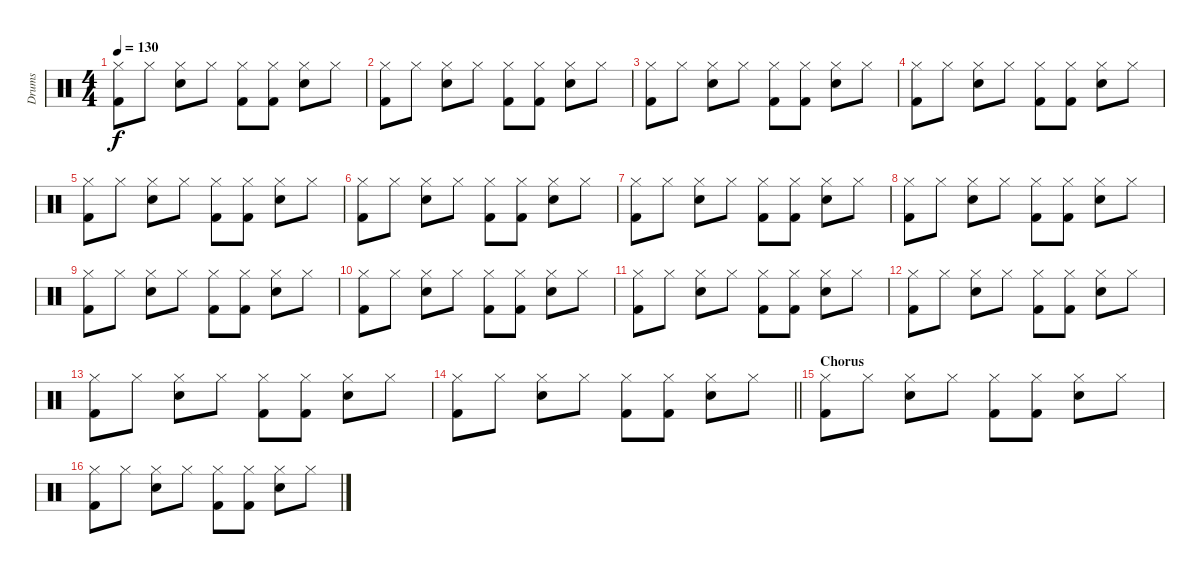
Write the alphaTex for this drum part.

\track ("Drums" "Drums") {instrument percussion}
\staff {score}
\articulation defaults
\ts (4 4)
\tempo 130
\clef neutral
\ks c
("Hi-Hat (closed)" "Kick (hit) 2").8{dy f} "Hi-Hat (closed)".8 ("Hi-Hat (closed)" "Snare (hit) 2").8 "Hi-Hat (closed)".8 ("Hi-Hat (closed)" "Kick (hit) 2").8 ("Hi-Hat (closed)" "Kick (hit) 2").8 ("Hi-Hat (closed)" "Snare (hit) 2").8 "Hi-Hat (closed)".8 |
("Hi-Hat (closed)" "Kick (hit) 2").8 "Hi-Hat (closed)".8 ("Hi-Hat (closed)" "Snare (hit) 2").8 "Hi-Hat (closed)".8 ("Hi-Hat (closed)" "Kick (hit) 2").8 ("Hi-Hat (closed)" "Kick (hit) 2").8 ("Hi-Hat (closed)" "Snare (hit) 2").8 "Hi-Hat (closed)".8 |
("Hi-Hat (closed)" "Kick (hit) 2").8 "Hi-Hat (closed)".8 ("Hi-Hat (closed)" "Snare (hit) 2").8 "Hi-Hat (closed)".8 ("Hi-Hat (closed)" "Kick (hit) 2").8 ("Hi-Hat (closed)" "Kick (hit) 2").8 ("Hi-Hat (closed)" "Snare (hit) 2").8 "Hi-Hat (closed)".8 |
("Hi-Hat (closed)" "Kick (hit) 2").8 "Hi-Hat (closed)".8 ("Hi-Hat (closed)" "Snare (hit) 2").8 "Hi-Hat (closed)".8 ("Hi-Hat (closed)" "Kick (hit) 2").8 ("Hi-Hat (closed)" "Kick (hit) 2").8 ("Hi-Hat (closed)" "Snare (hit) 2").8 "Hi-Hat (closed)".8 |
("Hi-Hat (closed)" "Kick (hit) 2").8 "Hi-Hat (closed)".8 ("Hi-Hat (closed)" "Snare (hit) 2").8 "Hi-Hat (closed)".8 ("Hi-Hat (closed)" "Kick (hit) 2").8 ("Hi-Hat (closed)" "Kick (hit) 2").8 ("Hi-Hat (closed)" "Snare (hit) 2").8 "Hi-Hat (closed)".8 |
("Hi-Hat (closed)" "Kick (hit) 2").8 "Hi-Hat (closed)".8 ("Hi-Hat (closed)" "Snare (hit) 2").8 "Hi-Hat (closed)".8 ("Hi-Hat (closed)" "Kick (hit) 2").8 ("Hi-Hat (closed)" "Kick (hit) 2").8 ("Hi-Hat (closed)" "Snare (hit) 2").8 "Hi-Hat (closed)".8 |
("Hi-Hat (closed)" "Kick (hit) 2").8 "Hi-Hat (closed)".8 ("Hi-Hat (closed)" "Snare (hit) 2").8 "Hi-Hat (closed)".8 ("Hi-Hat (closed)" "Kick (hit) 2").8 ("Hi-Hat (closed)" "Kick (hit) 2").8 ("Hi-Hat (closed)" "Snare (hit) 2").8 "Hi-Hat (closed)".8 |
("Hi-Hat (closed)" "Kick (hit) 2").8 "Hi-Hat (closed)".8 ("Hi-Hat (closed)" "Snare (hit) 2").8 "Hi-Hat (closed)".8 ("Hi-Hat (closed)" "Kick (hit) 2").8 ("Hi-Hat (closed)" "Kick (hit) 2").8 ("Hi-Hat (closed)" "Snare (hit) 2").8 "Hi-Hat (closed)".8 |
("Hi-Hat (closed)" "Kick (hit) 2").8 "Hi-Hat (closed)".8 ("Hi-Hat (closed)" "Snare (hit) 2").8 "Hi-Hat (closed)".8 ("Hi-Hat (closed)" "Kick (hit) 2").8 ("Hi-Hat (closed)" "Kick (hit) 2").8 ("Hi-Hat (closed)" "Snare (hit) 2").8 "Hi-Hat (closed)".8 |
("Hi-Hat (closed)" "Kick (hit) 2").8 "Hi-Hat (closed)".8 ("Hi-Hat (closed)" "Snare (hit) 2").8 "Hi-Hat (closed)".8 ("Hi-Hat (closed)" "Kick (hit) 2").8 ("Hi-Hat (closed)" "Kick (hit) 2").8 ("Hi-Hat (closed)" "Snare (hit) 2").8 "Hi-Hat (closed)".8 |
("Hi-Hat (closed)" "Kick (hit) 2").8 "Hi-Hat (closed)".8 ("Hi-Hat (closed)" "Snare (hit) 2").8 "Hi-Hat (closed)".8 ("Hi-Hat (closed)" "Kick (hit) 2").8 ("Hi-Hat (closed)" "Kick (hit) 2").8 ("Hi-Hat (closed)" "Snare (hit) 2").8 "Hi-Hat (closed)".8 |
("Hi-Hat (closed)" "Kick (hit) 2").8 "Hi-Hat (closed)".8 ("Hi-Hat (closed)" "Snare (hit) 2").8 "Hi-Hat (closed)".8 ("Hi-Hat (closed)" "Kick (hit) 2").8 ("Hi-Hat (closed)" "Kick (hit) 2").8 ("Hi-Hat (closed)" "Snare (hit) 2").8 "Hi-Hat (closed)".8 |
("Hi-Hat (closed)" "Kick (hit) 2").8 "Hi-Hat (closed)".8 ("Hi-Hat (closed)" "Snare (hit) 2").8 "Hi-Hat (closed)".8 ("Hi-Hat (closed)" "Kick (hit) 2").8 ("Hi-Hat (closed)" "Kick (hit) 2").8 ("Hi-Hat (closed)" "Snare (hit) 2").8 "Hi-Hat (closed)".8 |
\barLineRight lightlight
("Hi-Hat (closed)" "Kick (hit) 2").8 "Hi-Hat (closed)".8 ("Hi-Hat (closed)" "Snare (hit) 2").8 "Hi-Hat (closed)".8 ("Hi-Hat (closed)" "Kick (hit) 2").8 ("Hi-Hat (closed)" "Kick (hit) 2").8 ("Hi-Hat (closed)" "Snare (hit) 2").8 "Hi-Hat (closed)".8 |
\section ("" "Chorus")
("Hi-Hat (closed)" "Kick (hit) 2").8 "Hi-Hat (closed)".8 ("Hi-Hat (closed)" "Snare (hit) 2").8 "Hi-Hat (closed)".8 ("Hi-Hat (closed)" "Kick (hit) 2").8 ("Hi-Hat (closed)" "Kick (hit) 2").8 ("Hi-Hat (closed)" "Snare (hit) 2").8 "Hi-Hat (closed)".8 |
("Hi-Hat (closed)" "Kick (hit) 2").8 "Hi-Hat (closed)".8 ("Hi-Hat (closed)" "Snare (hit) 2").8 "Hi-Hat (closed)".8 ("Hi-Hat (closed)" "Kick (hit) 2").8 ("Hi-Hat (closed)" "Kick (hit) 2").8 ("Hi-Hat (closed)" "Snare (hit) 2").8 "Hi-Hat (closed)".8
